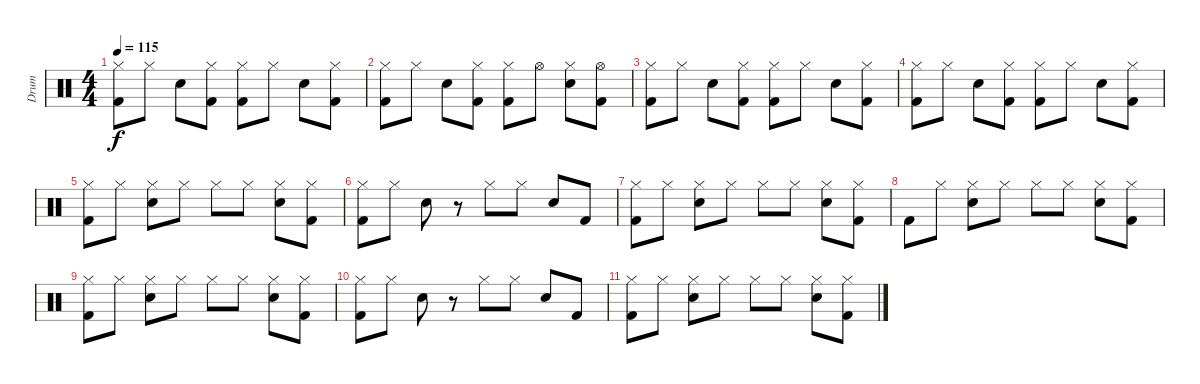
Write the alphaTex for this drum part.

\track ("Drum" "Drum") {instrument percussion}
\staff {score}
\articulation defaults
\ts (4 4)
\tempo 115
\clef neutral
\ks c
("Hi-Hat (closed)" "Kick (hit) 2").8{dy f} "Hi-Hat (closed)".8 "Electric Snare (hit)".8 ("Hi-Hat (closed)" "Kick (hit) 2").8 ("Hi-Hat (closed)" "Kick (hit) 2").8 "Hi-Hat (closed)".8 "Electric Snare (hit)".8 ("Hi-Hat (closed)" "Kick (hit) 2").8 |
("Hi-Hat (closed)" "Kick (hit) 2").8 "Hi-Hat (closed)".8 "Electric Snare (hit)".8 ("Hi-Hat (closed)" "Kick (hit) 2").8 ("Hi-Hat (closed)" "Kick (hit) 2").8 "Hi-Hat (open)".8 ("Hi-Hat (closed)" "Electric Snare (hit)").8 ("Hi-Hat (open)" "Kick (hit) 2").8 |
("Hi-Hat (closed)" "Kick (hit) 2").8 "Hi-Hat (closed)".8 "Electric Snare (hit)".8 ("Hi-Hat (closed)" "Kick (hit) 2").8 ("Hi-Hat (closed)" "Kick (hit) 2").8 "Hi-Hat (closed)".8 "Electric Snare (hit)".8 ("Hi-Hat (closed)" "Kick (hit) 2").8 |
("Hi-Hat (closed)" "Kick (hit) 2").8 "Hi-Hat (closed)".8 "Electric Snare (hit)".8 ("Hi-Hat (closed)" "Kick (hit) 2").8 ("Hi-Hat (closed)" "Kick (hit) 2").8 "Hi-Hat (closed)".8 "Electric Snare (hit)".8 ("Hi-Hat (closed)" "Kick (hit) 2").8 |
("Hi-Hat (closed)" "Kick (hit) 2").8 "Hi-Hat (closed)".8 ("Hi-Hat (closed)" "Snare (hit) 2").8 "Hi-Hat (closed)".8 "Hi-Hat (closed)".8 "Hi-Hat (closed)".8 ("Hi-Hat (closed)" "Snare (hit) 2").8 ("Hi-Hat (closed)" "Kick (hit) 2").8 |
("Hi-Hat (closed)" "Kick (hit) 2").8 "Hi-Hat (closed)".8 "Snare (hit) 2".8 r.8 "Hi-Hat (closed)".8 "Hi-Hat (closed)".8 "Snare (hit) 2".8 "Kick (hit) 2".8 |
("Hi-Hat (closed)" "Kick (hit) 2").8 "Hi-Hat (closed)".8 ("Hi-Hat (closed)" "Snare (hit) 2").8 "Hi-Hat (closed)".8 "Hi-Hat (closed)".8 "Hi-Hat (closed)".8 ("Hi-Hat (closed)" "Snare (hit) 2").8 ("Hi-Hat (closed)" "Kick (hit) 2").8 |
"Kick (hit) 2".8 "Hi-Hat (closed)".8 ("Hi-Hat (closed)" "Snare (hit) 2").8 "Hi-Hat (closed)".8 "Hi-Hat (closed)".8 "Hi-Hat (closed)".8 ("Hi-Hat (closed)" "Snare (hit) 2").8 ("Hi-Hat (closed)" "Kick (hit) 2").8 |
("Hi-Hat (closed)" "Kick (hit) 2").8 "Hi-Hat (closed)".8 ("Hi-Hat (closed)" "Snare (hit) 2").8 "Hi-Hat (closed)".8 "Hi-Hat (closed)".8 "Hi-Hat (closed)".8 ("Hi-Hat (closed)" "Snare (hit) 2").8 ("Hi-Hat (closed)" "Kick (hit) 2").8 |
("Hi-Hat (closed)" "Kick (hit) 2").8 "Hi-Hat (closed)".8 "Snare (hit) 2".8 r.8 "Hi-Hat (closed)".8 "Hi-Hat (closed)".8 "Snare (hit) 2".8 "Kick (hit) 2".8 |
("Hi-Hat (closed)" "Kick (hit) 2").8 "Hi-Hat (closed)".8 ("Hi-Hat (closed)" "Snare (hit) 2").8 "Hi-Hat (closed)".8 "Hi-Hat (closed)".8 "Hi-Hat (closed)".8 ("Hi-Hat (closed)" "Snare (hit) 2").8 ("Hi-Hat (closed)" "Kick (hit) 2").8
